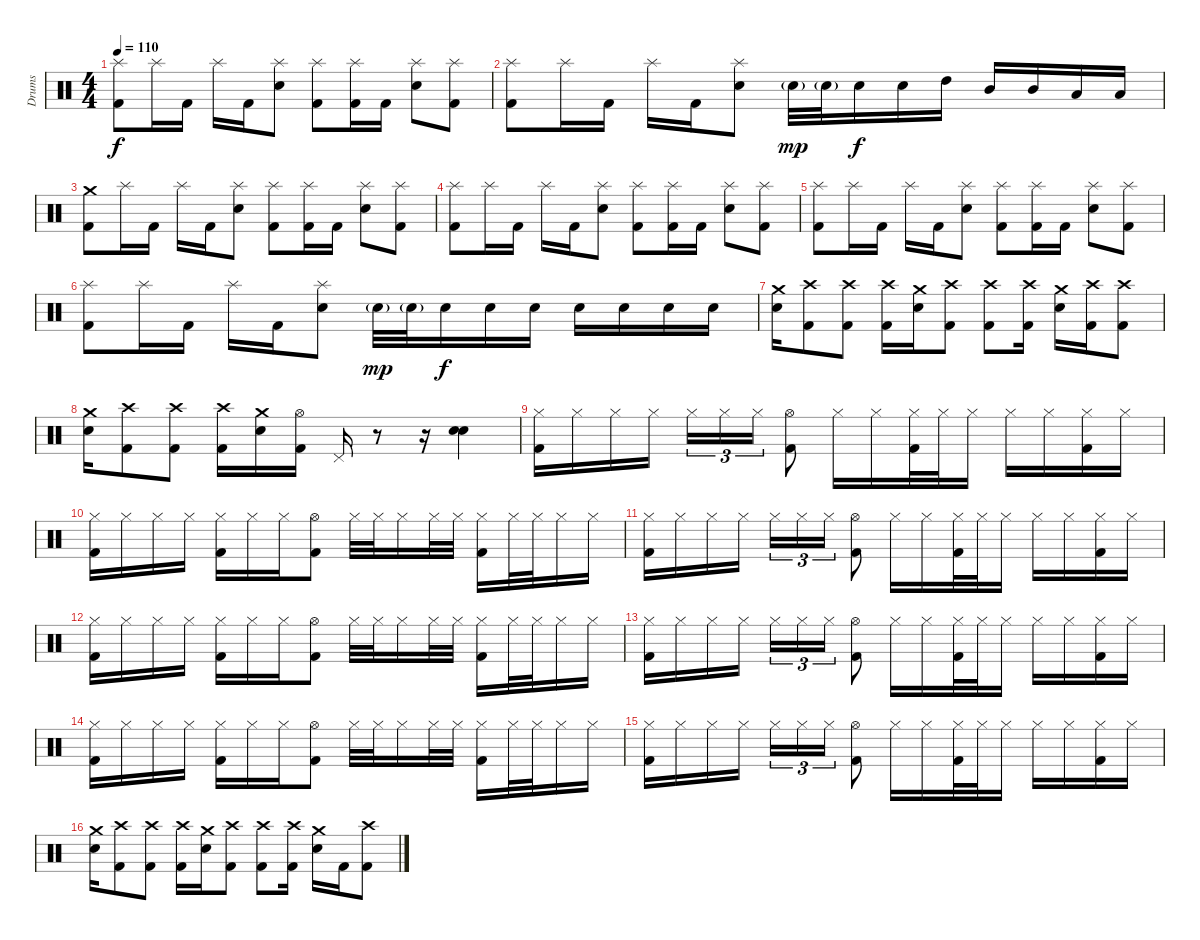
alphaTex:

\track ("Drums" "Drums") {instrument percussion}
\staff {score}
\articulation defaults
\ts (4 4)
\tempo 110
\clef neutral
\ks c
("Splash (hit)" "Kick (hit) 2").8{dy f} "Splash (hit)".16 "Kick (hit) 2".16 "Splash (hit)".16 "Kick (hit) 2".16 ("Splash (hit)" "Electric Snare (hit)").8 ("Splash (hit)" "Kick (hit) 2").8 ("Splash (hit)" "Kick (hit) 2").16 "Kick (hit) 2".16 ("Splash (hit)" "Electric Snare (hit)").8 ("Splash (hit)" "Kick (hit) 2").8 |
("Splash (hit)" "Kick (hit) 2").8 "Splash (hit)".16 "Kick (hit) 2".16 "Splash (hit)".16 "Kick (hit) 2".16 ("Splash (hit)" "Electric Snare (hit)").8 "Electric Snare (hit)"{g}.32{dy mp} "Electric Snare (hit)"{g}.32 "Electric Snare (hit)".16{dy f} "Electric Snare (hit)".16 "High Tom (hit)".16 "Mid Tom (hit)".16 "Mid Tom (hit)".16 "Low Tom (hit)".16 "Low Tom (hit)".16 |
("Crash medium (hit)" "Kick (hit) 2").8 "Splash (hit)".16 "Kick (hit) 2".16 "Splash (hit)".16 "Kick (hit) 2".16 ("Splash (hit)" "Electric Snare (hit)").8 ("Splash (hit)" "Kick (hit) 2").8 ("Splash (hit)" "Kick (hit) 2").16 "Kick (hit) 2".16 ("Splash (hit)" "Electric Snare (hit)").8 ("Splash (hit)" "Kick (hit) 2").8 |
("Splash (hit)" "Kick (hit) 2").8 "Splash (hit)".16 "Kick (hit) 2".16 "Splash (hit)".16 "Kick (hit) 2".16 ("Splash (hit)" "Electric Snare (hit)").8 ("Splash (hit)" "Kick (hit) 2").8 ("Splash (hit)" "Kick (hit) 2").16 "Kick (hit) 2".16 ("Splash (hit)" "Electric Snare (hit)").8 ("Splash (hit)" "Kick (hit) 2").8 |
("Splash (hit)" "Kick (hit) 2").8 "Splash (hit)".16 "Kick (hit) 2".16 "Splash (hit)".16 "Kick (hit) 2".16 ("Splash (hit)" "Electric Snare (hit)").8 ("Splash (hit)" "Kick (hit) 2").8 ("Splash (hit)" "Kick (hit) 2").16 "Kick (hit) 2".16 ("Splash (hit)" "Electric Snare (hit)").8 ("Splash (hit)" "Kick (hit) 2").8 |
("Splash (hit)" "Kick (hit) 2").8 "Splash (hit)".16 "Kick (hit) 2".16 "Splash (hit)".16 "Kick (hit) 2".16 ("Splash (hit)" "Electric Snare (hit)").8 "Electric Snare (hit)"{g}.32{dy mp} "Electric Snare (hit)"{g}.32 "Electric Snare (hit)".16{dy f} "Electric Snare (hit)".16 "Electric Snare (hit)".16 "Electric Snare (hit)".16 "Electric Snare (hit)".16 "Electric Snare (hit)".16 "Electric Snare (hit)".16 |
("Crash medium (hit)" "Electric Snare (hit)").16 ("Crash high (hit)" "Kick (hit) 2").8 ("Crash high (hit)" "Kick (hit) 2").8 ("Crash high (hit)" "Kick (hit) 2").16 ("Crash medium (hit)" "Electric Snare (hit)").16 ("Crash high (hit)" "Kick (hit) 2").8 ("Crash high (hit)" "Kick (hit) 2").8 ("Crash high (hit)" "Kick (hit) 2").16 ("Crash medium (hit)" "Electric Snare (hit)").16 ("Crash high (hit)" "Kick (hit) 2").16 ("Crash high (hit)" "Kick (hit) 2").8 |
("Crash medium (hit)" "Electric Snare (hit)").16 ("Crash high (hit)" "Kick (hit) 2").8 ("Crash high (hit)" "Kick (hit) 2").8 ("Crash high (hit)" "Kick (hit) 2").16 ("Crash medium (hit)" "Electric Snare (hit)").16 ("Hi-Hat (open)" "Kick (hit) 2").16 "Pedal Hi-Hat (hit)".16 r.8 r.16 ("Electric Snare (hit)" "Electric Snare (hit)").4{bd 240} |
("Hi-Hat (closed)" "Kick (hit) 2").16 "Hi-Hat (closed)".16 "Hi-Hat (closed)".16 "Hi-Hat (closed)".16 "Hi-Hat (closed)".16{tu (3 2)} "Hi-Hat (closed)".16{tu (3 2)} "Hi-Hat (closed)".16{tu (3 2)} ("Hi-Hat (open)" "Kick (hit) 2").8 "Hi-Hat (closed)".16 "Hi-Hat (closed)".16 ("Hi-Hat (closed)" "Kick (hit) 2").32 "Hi-Hat (closed)".32 "Hi-Hat (closed)".16 "Hi-Hat (closed)".16 "Hi-Hat (closed)".16 ("Hi-Hat (closed)" "Kick (hit) 2").16 "Hi-Hat (closed)".16 |
("Hi-Hat (closed)" "Kick (hit) 2").16 "Hi-Hat (closed)".16 "Hi-Hat (closed)".16 "Hi-Hat (closed)".16 ("Hi-Hat (closed)" "Kick (hit) 2").16 "Hi-Hat (closed)".16 "Hi-Hat (closed)".16 ("Hi-Hat (open)" "Kick (hit) 2").8 "Hi-Hat (closed)".32 "Hi-Hat (closed)".32 "Hi-Hat (closed)".16 "Hi-Hat (closed)".32 "Hi-Hat (closed)".32 ("Hi-Hat (closed)" "Kick (hit) 2").16 "Hi-Hat (closed)".32 "Hi-Hat (closed)".32 "Hi-Hat (closed)".16 "Hi-Hat (closed)".16 |
("Hi-Hat (closed)" "Kick (hit) 2").16 "Hi-Hat (closed)".16 "Hi-Hat (closed)".16 "Hi-Hat (closed)".16 "Hi-Hat (closed)".16{tu (3 2)} "Hi-Hat (closed)".16{tu (3 2)} "Hi-Hat (closed)".16{tu (3 2)} ("Hi-Hat (open)" "Kick (hit) 2").8 "Hi-Hat (closed)".16 "Hi-Hat (closed)".16 ("Hi-Hat (closed)" "Kick (hit) 2").32 "Hi-Hat (closed)".32 "Hi-Hat (closed)".16 "Hi-Hat (closed)".16 "Hi-Hat (closed)".16 ("Hi-Hat (closed)" "Kick (hit) 2").16 "Hi-Hat (closed)".16 |
("Hi-Hat (closed)" "Kick (hit) 2").16 "Hi-Hat (closed)".16 "Hi-Hat (closed)".16 "Hi-Hat (closed)".16 ("Hi-Hat (closed)" "Kick (hit) 2").16 "Hi-Hat (closed)".16 "Hi-Hat (closed)".16 ("Hi-Hat (open)" "Kick (hit) 2").8 "Hi-Hat (closed)".32 "Hi-Hat (closed)".32 "Hi-Hat (closed)".16 "Hi-Hat (closed)".32 "Hi-Hat (closed)".32 ("Hi-Hat (closed)" "Kick (hit) 2").16 "Hi-Hat (closed)".32 "Hi-Hat (closed)".32 "Hi-Hat (closed)".16 "Hi-Hat (closed)".16 |
("Hi-Hat (closed)" "Kick (hit) 2").16 "Hi-Hat (closed)".16 "Hi-Hat (closed)".16 "Hi-Hat (closed)".16 "Hi-Hat (closed)".16{tu (3 2)} "Hi-Hat (closed)".16{tu (3 2)} "Hi-Hat (closed)".16{tu (3 2)} ("Hi-Hat (open)" "Kick (hit) 2").8 "Hi-Hat (closed)".16 "Hi-Hat (closed)".16 ("Hi-Hat (closed)" "Kick (hit) 2").32 "Hi-Hat (closed)".32 "Hi-Hat (closed)".16 "Hi-Hat (closed)".16 "Hi-Hat (closed)".16 ("Hi-Hat (closed)" "Kick (hit) 2").16 "Hi-Hat (closed)".16 |
("Hi-Hat (closed)" "Kick (hit) 2").16 "Hi-Hat (closed)".16 "Hi-Hat (closed)".16 "Hi-Hat (closed)".16 ("Hi-Hat (closed)" "Kick (hit) 2").16 "Hi-Hat (closed)".16 "Hi-Hat (closed)".16 ("Hi-Hat (open)" "Kick (hit) 2").8 "Hi-Hat (closed)".32 "Hi-Hat (closed)".32 "Hi-Hat (closed)".16 "Hi-Hat (closed)".32 "Hi-Hat (closed)".32 ("Hi-Hat (closed)" "Kick (hit) 2").16 "Hi-Hat (closed)".32 "Hi-Hat (closed)".32 "Hi-Hat (closed)".16 "Hi-Hat (closed)".16 |
("Hi-Hat (closed)" "Kick (hit) 2").16 "Hi-Hat (closed)".16 "Hi-Hat (closed)".16 "Hi-Hat (closed)".16 "Hi-Hat (closed)".16{tu (3 2)} "Hi-Hat (closed)".16{tu (3 2)} "Hi-Hat (closed)".16{tu (3 2)} ("Hi-Hat (open)" "Kick (hit) 2").8 "Hi-Hat (closed)".16 "Hi-Hat (closed)".16 ("Hi-Hat (closed)" "Kick (hit) 2").32 "Hi-Hat (closed)".32 "Hi-Hat (closed)".16 "Hi-Hat (closed)".16 "Hi-Hat (closed)".16 ("Hi-Hat (closed)" "Kick (hit) 2").16 "Hi-Hat (closed)".16 |
("Crash medium (hit)" "Electric Snare (hit)").16 ("Crash high (hit)" "Kick (hit) 2").8 ("Crash high (hit)" "Kick (hit) 2").8 ("Crash high (hit)" "Kick (hit) 2").16 ("Crash medium (hit)" "Electric Snare (hit)").16 ("Crash high (hit)" "Kick (hit) 2").8 ("Crash high (hit)" "Kick (hit) 2").8 ("Crash high (hit)" "Kick (hit) 2").16 ("Crash medium (hit)" "Electric Snare (hit)").16 "Kick (hit) 2".16 ("Crash high (hit)" "Kick (hit) 2").8
